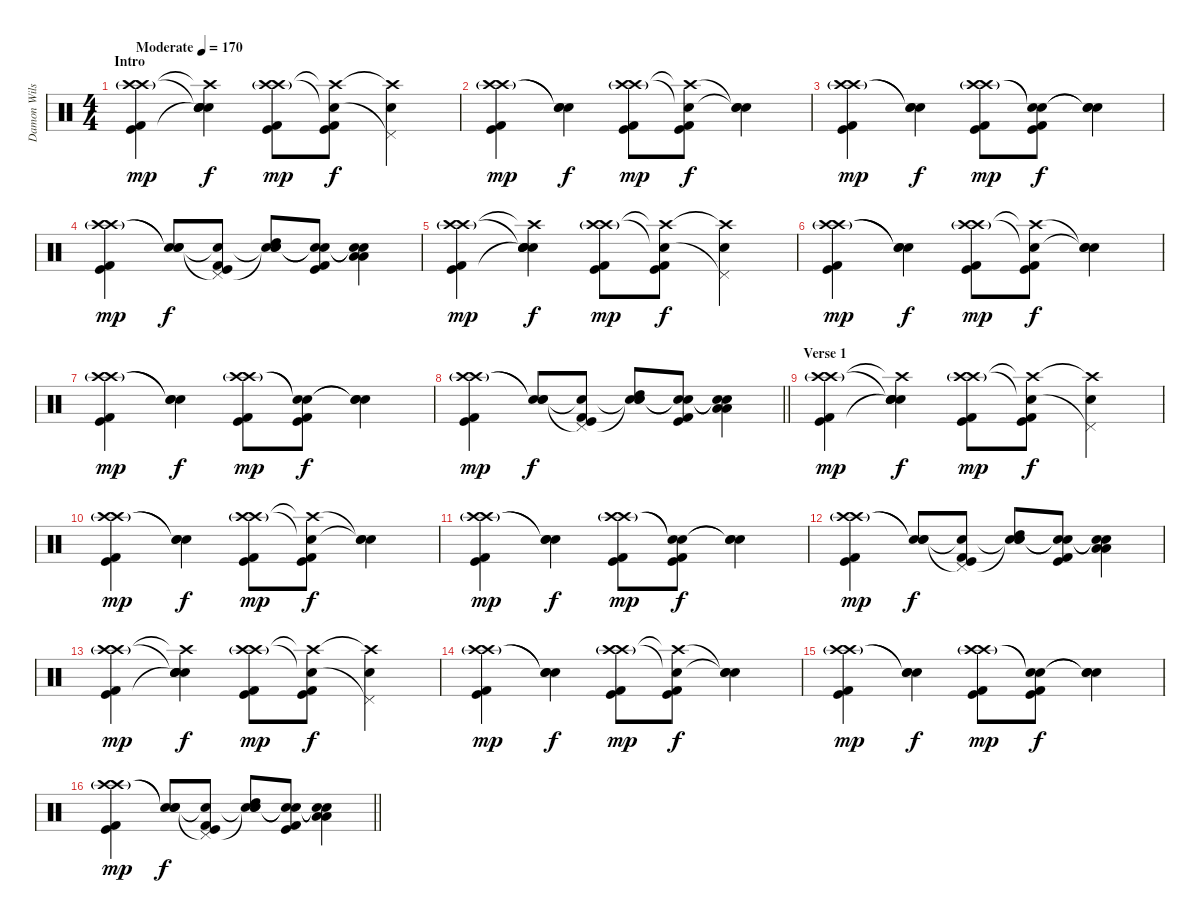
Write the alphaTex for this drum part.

\track ("Damon Wilson" "Damon Wils") {instrument percussion}
\staff {score}
\articulation defaults
\ts (4 4)
\section ("" "Intro")
\tempo (170 "Moderate")
\clef neutral
\ks c
("Crash high (hit)"{g} "Crash high (hit)"{g} "Kick (hit) 2" "Kick (hit)").4{dy mp} ("Snare (hit)"{t} "Crash high (hit)"{t} "Snare (hit) 2" "Snare (hit)"{t} "Snare (hit)").4{dy f} ("Crash high (hit)"{g} "Crash high (hit)"{g} "Kick (hit) 2" "Kick (hit)").8{dy mp} ("Snare (hit)"{t} "Crash high (hit)"{t} "Kick (hit) 2" "Kick (hit)").8{dy f} ("Pedal Hi-Hat (hit)"{t} "Crash high (hit)"{t} "Snare (hit) 2").4 |
("Crash high (hit)"{g} "Crash high (hit)"{g} "Kick (hit) 2" "Kick (hit)").4{dy mp} ("Snare (hit)"{t} "Snare (hit)"{t} "Snare (hit) 2").4{dy f} ("Crash high (hit)"{g} "Crash high (hit)"{g} "Kick (hit) 2" "Kick (hit)").8{dy mp} ("Crash high (hit)"{t} "Snare (hit)"{t} "Kick (hit) 2" "Kick (hit)").8{dy f} ("Snare (hit)"{t} "Snare (hit)"{t} "Snare (hit) 2").4 |
("Crash high (hit)"{g} "Crash high (hit)"{g} "Kick (hit) 2" "Kick (hit)").4{dy mp} ("Snare (hit)"{t} "Snare (hit)"{t} "Snare (hit) 2").4{dy f} ("Crash high (hit)"{g} "Crash high (hit)"{g} "Kick (hit) 2" "Kick (hit)").8{dy mp} ("Snare (hit)"{t} "Snare (hit)"{t} "Kick (hit) 2" "Kick (hit)").8{dy f} ("Snare (hit)"{t} "Snare (hit)"{t} "Snare (hit) 2").4 |
("Crash high (hit)"{g} "Crash high (hit)"{g} "Kick (hit) 2" "Kick (hit)").4{dy mp} ("Snare (hit)"{t} "Snare (hit)"{t} "Snare (hit) 2").8{dy f} ("Pedal Hi-Hat (hit)"{t} "Snare (hit)"{t} "Kick (hit) 2" "Kick (hit)").8 ("Snare (hit)"{t} "Snare (hit)"{t} "Snare (hit) 2" "High Tom (hit)").8 ("Snare (hit)"{t} "Snare (hit)"{t} "Kick (hit) 2" "Kick (hit)").8 ("Snare (hit)"{t} "Snare (hit)"{t} "Low Tom (hit)" "Low Floor Tom (hit)").4 |
("Crash high (hit)"{g} "Crash high (hit)"{g} "Kick (hit) 2" "Kick (hit)").4{dy mp} ("Snare (hit)"{t} "Crash high (hit)"{t} "Snare (hit) 2" "Snare (hit)"{t} "Snare (hit)").4{dy f} ("Crash high (hit)"{g} "Crash high (hit)"{g} "Kick (hit) 2" "Kick (hit)").8{dy mp} ("Snare (hit)"{t} "Crash high (hit)"{t} "Kick (hit) 2" "Kick (hit)").8{dy f} ("Pedal Hi-Hat (hit)"{t} "Crash high (hit)"{t} "Snare (hit) 2").4 |
("Crash high (hit)"{g} "Crash high (hit)"{g} "Kick (hit) 2" "Kick (hit)").4{dy mp} ("Snare (hit)"{t} "Snare (hit)"{t} "Snare (hit) 2").4{dy f} ("Crash high (hit)"{g} "Crash high (hit)"{g} "Kick (hit) 2" "Kick (hit)").8{dy mp} ("Crash high (hit)"{t} "Snare (hit)"{t} "Kick (hit) 2" "Kick (hit)").8{dy f} ("Snare (hit)"{t} "Snare (hit)"{t} "Snare (hit) 2").4 |
("Crash high (hit)"{g} "Crash high (hit)"{g} "Kick (hit) 2" "Kick (hit)").4{dy mp} ("Snare (hit)"{t} "Snare (hit)"{t} "Snare (hit) 2").4{dy f} ("Crash high (hit)"{g} "Crash high (hit)"{g} "Kick (hit) 2" "Kick (hit)").8{dy mp} ("Snare (hit)"{t} "Snare (hit)"{t} "Kick (hit) 2" "Kick (hit)").8{dy f} ("Snare (hit)"{t} "Snare (hit)"{t} "Snare (hit) 2").4 |
\barLineRight lightlight
("Crash high (hit)"{g} "Crash high (hit)"{g} "Kick (hit) 2" "Kick (hit)").4{dy mp} ("Snare (hit)"{t} "Snare (hit)"{t} "Snare (hit) 2").8{dy f} ("Pedal Hi-Hat (hit)"{t} "Snare (hit)"{t} "Kick (hit) 2" "Kick (hit)").8 ("Snare (hit)"{t} "Snare (hit)"{t} "Snare (hit) 2" "High Tom (hit)").8 ("Snare (hit)"{t} "Snare (hit)"{t} "Kick (hit) 2" "Kick (hit)").8 ("Snare (hit)"{t} "Snare (hit)"{t} "Low Tom (hit)" "Low Floor Tom (hit)").4 |
\section ("" "Verse 1")
("Crash high (hit)"{g} "Crash high (hit)"{g} "Kick (hit) 2" "Kick (hit)").4{dy mp} ("Snare (hit)"{t} "Crash high (hit)"{t} "Snare (hit) 2" "Snare (hit)"{t} "Snare (hit)").4{dy f} ("Crash high (hit)"{g} "Crash high (hit)"{g} "Kick (hit) 2" "Kick (hit)").8{dy mp} ("Snare (hit)"{t} "Crash high (hit)"{t} "Kick (hit) 2" "Kick (hit)").8{dy f} ("Pedal Hi-Hat (hit)"{t} "Crash high (hit)"{t} "Snare (hit) 2").4 |
("Crash high (hit)"{g} "Crash high (hit)"{g} "Kick (hit) 2" "Kick (hit)").4{dy mp} ("Snare (hit)"{t} "Snare (hit)"{t} "Snare (hit) 2").4{dy f} ("Crash high (hit)"{g} "Crash high (hit)"{g} "Kick (hit) 2" "Kick (hit)").8{dy mp} ("Crash high (hit)"{t} "Snare (hit)"{t} "Kick (hit) 2" "Kick (hit)").8{dy f} ("Snare (hit)"{t} "Snare (hit)"{t} "Snare (hit) 2").4 |
("Crash high (hit)"{g} "Crash high (hit)"{g} "Kick (hit) 2" "Kick (hit)").4{dy mp} ("Snare (hit)"{t} "Snare (hit)"{t} "Snare (hit) 2").4{dy f} ("Crash high (hit)"{g} "Crash high (hit)"{g} "Kick (hit) 2" "Kick (hit)").8{dy mp} ("Snare (hit)"{t} "Snare (hit)"{t} "Kick (hit) 2" "Kick (hit)").8{dy f} ("Snare (hit)"{t} "Snare (hit)"{t} "Snare (hit) 2").4 |
("Crash high (hit)"{g} "Crash high (hit)"{g} "Kick (hit) 2" "Kick (hit)").4{dy mp} ("Snare (hit)"{t} "Snare (hit)"{t} "Snare (hit) 2").8{dy f} ("Pedal Hi-Hat (hit)"{t} "Snare (hit)"{t} "Kick (hit) 2" "Kick (hit)").8 ("Snare (hit)"{t} "Snare (hit)"{t} "Snare (hit) 2" "High Tom (hit)").8 ("Snare (hit)"{t} "Snare (hit)"{t} "Kick (hit) 2" "Kick (hit)").8 ("Snare (hit)"{t} "Snare (hit)"{t} "Low Tom (hit)" "Low Floor Tom (hit)").4 |
("Crash high (hit)"{g} "Crash high (hit)"{g} "Kick (hit) 2" "Kick (hit)").4{dy mp} ("Snare (hit)"{t} "Crash high (hit)"{t} "Snare (hit) 2" "Snare (hit)"{t} "Snare (hit)").4{dy f} ("Crash high (hit)"{g} "Crash high (hit)"{g} "Kick (hit) 2" "Kick (hit)").8{dy mp} ("Snare (hit)"{t} "Crash high (hit)"{t} "Kick (hit) 2" "Kick (hit)").8{dy f} ("Pedal Hi-Hat (hit)"{t} "Crash high (hit)"{t} "Snare (hit) 2").4 |
("Crash high (hit)"{g} "Crash high (hit)"{g} "Kick (hit) 2" "Kick (hit)").4{dy mp} ("Snare (hit)"{t} "Snare (hit)"{t} "Snare (hit) 2").4{dy f} ("Crash high (hit)"{g} "Crash high (hit)"{g} "Kick (hit) 2" "Kick (hit)").8{dy mp} ("Crash high (hit)"{t} "Snare (hit)"{t} "Kick (hit) 2" "Kick (hit)").8{dy f} ("Snare (hit)"{t} "Snare (hit)"{t} "Snare (hit) 2").4 |
("Crash high (hit)"{g} "Crash high (hit)"{g} "Kick (hit) 2" "Kick (hit)").4{dy mp} ("Snare (hit)"{t} "Snare (hit)"{t} "Snare (hit) 2").4{dy f} ("Crash high (hit)"{g} "Crash high (hit)"{g} "Kick (hit) 2" "Kick (hit)").8{dy mp} ("Snare (hit)"{t} "Snare (hit)"{t} "Kick (hit) 2" "Kick (hit)").8{dy f} ("Snare (hit)"{t} "Snare (hit)"{t} "Snare (hit) 2").4 |
\barLineRight lightlight
("Crash high (hit)"{g} "Crash high (hit)"{g} "Kick (hit) 2" "Kick (hit)").4{dy mp} ("Snare (hit)"{t} "Snare (hit)"{t} "Snare (hit) 2").8{dy f} ("Pedal Hi-Hat (hit)"{t} "Snare (hit)"{t} "Kick (hit) 2" "Kick (hit)").8 ("Snare (hit)"{t} "Snare (hit)"{t} "Snare (hit) 2" "High Tom (hit)").8 ("Snare (hit)"{t} "Snare (hit)"{t} "Kick (hit) 2" "Kick (hit)").8 ("Snare (hit)"{t} "Snare (hit)"{t} "Low Tom (hit)" "Low Floor Tom (hit)").4
